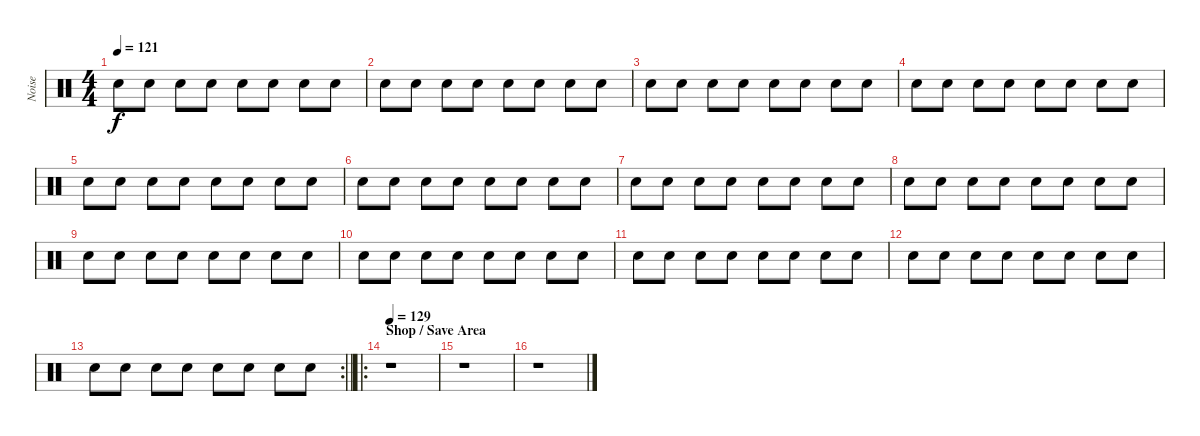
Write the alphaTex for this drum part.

\track ("Noise" "Noise") {instrument percussion}
\staff {score}
\articulation defaults
\ts (4 4)
\tempo 121
\clef neutral
\ks c "Snare (hit) 2".8{dy f} "Snare (hit) 2".8 "Snare (hit) 2".8 "Snare (hit) 2".8 "Snare (hit) 2".8 "Snare (hit) 2".8 "Snare (hit) 2".8 "Snare (hit) 2".8
|
"Snare (hit) 2".8 "Snare (hit) 2".8 "Snare (hit) 2".8 "Snare (hit) 2".8 "Snare (hit) 2".8 "Snare (hit) 2".8 "Snare (hit) 2".8 "Snare (hit) 2".8 |
"Snare (hit) 2".8 "Snare (hit) 2".8 "Snare (hit) 2".8 "Snare (hit) 2".8 "Snare (hit) 2".8 "Snare (hit) 2".8 "Snare (hit) 2".8 "Snare (hit) 2".8 |
"Snare (hit) 2".8 "Snare (hit) 2".8 "Snare (hit) 2".8 "Snare (hit) 2".8 "Snare (hit) 2".8 "Snare (hit) 2".8 "Snare (hit) 2".8 "Snare (hit) 2".8 |
"Snare (hit) 2".8 "Snare (hit) 2".8 "Snare (hit) 2".8 "Snare (hit) 2".8 "Snare (hit) 2".8 "Snare (hit) 2".8 "Snare (hit) 2".8 "Snare (hit) 2".8 |
"Snare (hit) 2".8 "Snare (hit) 2".8 "Snare (hit) 2".8 "Snare (hit) 2".8 "Snare (hit) 2".8 "Snare (hit) 2".8 "Snare (hit) 2".8 "Snare (hit) 2".8 |
"Snare (hit) 2".8 "Snare (hit) 2".8 "Snare (hit) 2".8 "Snare (hit) 2".8 "Snare (hit) 2".8 "Snare (hit) 2".8 "Snare (hit) 2".8 "Snare (hit) 2".8 |
"Snare (hit) 2".8 "Snare (hit) 2".8 "Snare (hit) 2".8 "Snare (hit) 2".8 "Snare (hit) 2".8 "Snare (hit) 2".8 "Snare (hit) 2".8 "Snare (hit) 2".8 |
"Snare (hit) 2".8 "Snare (hit) 2".8 "Snare (hit) 2".8 "Snare (hit) 2".8 "Snare (hit) 2".8 "Snare (hit) 2".8 "Snare (hit) 2".8 "Snare (hit) 2".8 |
"Snare (hit) 2".8 "Snare (hit) 2".8 "Snare (hit) 2".8 "Snare (hit) 2".8 "Snare (hit) 2".8 "Snare (hit) 2".8 "Snare (hit) 2".8 "Snare (hit) 2".8 |
"Snare (hit) 2".8 "Snare (hit) 2".8 "Snare (hit) 2".8 "Snare (hit) 2".8 "Snare (hit) 2".8 "Snare (hit) 2".8 "Snare (hit) 2".8 "Snare (hit) 2".8 |
"Snare (hit) 2".8 "Snare (hit) 2".8 "Snare (hit) 2".8 "Snare (hit) 2".8 "Snare (hit) 2".8 "Snare (hit) 2".8 "Snare (hit) 2".8 "Snare (hit) 2".8 |
\rc 2
\barLineRight lightlight "Snare (hit) 2".8 "Snare (hit) 2".8 "Snare (hit) 2".8 "Snare (hit) 2".8 "Snare (hit) 2".8 "Snare (hit) 2".8 "Snare (hit) 2".8 "Snare (hit) 2".8
|
\ro
\section ("" "Shop / Save Area")
\tempo 129
r.1{volume 13} |
r.1 |
r.1
